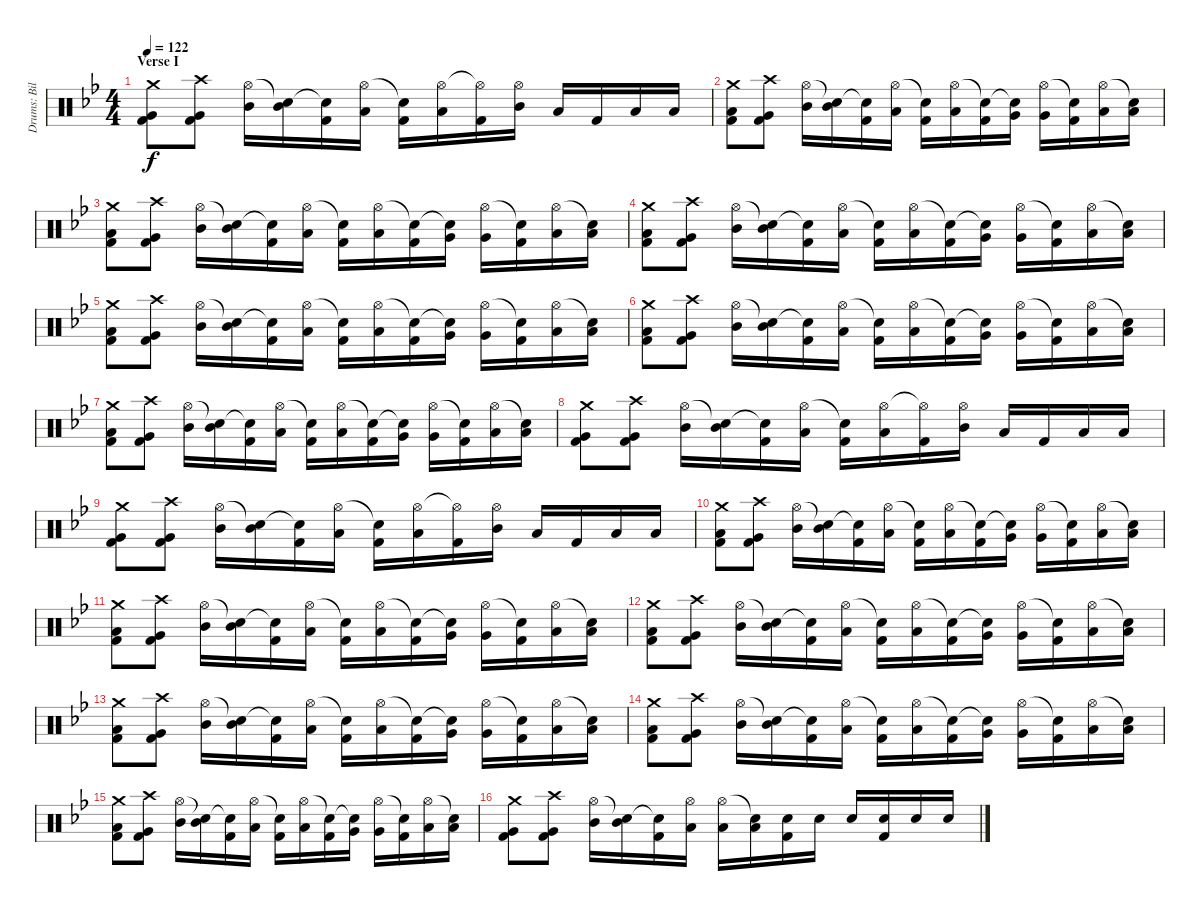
\track ("Drums: Bill" "Drums: Bil") {instrument percussion}
\staff {score}
\articulation defaults
\ts (4 4)
\section ("" "Verse I")
\tempo 122
\clef neutral
\ks bb
("Crash medium (hit)" "Very Low Tom (hit)" "Kick (hit) 2").8{dy f} ("Crash high (hit)" "Very Low Tom (hit)" "Kick (hit) 2").8 ("Hi-Hat (open)" "Mid Tom (hit)").16 ("Snare (hit)"{t} "Mid Tom (hit)").16 ("Snare (hit)"{t} "Kick (hit) 2").16 ("Hi-Hat (open)" "Low Tom (hit)").16 ("Snare (hit)"{t} "Kick (hit) 2").16 ("Hi-Hat (open)" "Low Tom (hit)").16 ("Hi-Hat (open)"{t} "Kick (hit) 2").16 ("Hi-Hat (open)" "Mid Tom (hit)").16 "Low Tom (hit)".16 "Kick (hit) 2".16 "Low Tom (hit)".16 "Low Tom (hit)".16 |
("Crash medium (hit)" "Low Tom (hit)" "Kick (hit) 2").8 ("Crash high (hit)" "Very Low Tom (hit)" "Kick (hit) 2").8 ("Hi-Hat (open)" "Mid Tom (hit)").16 ("Snare (hit)"{t} "Mid Tom (hit)").16 ("Snare (hit)"{t} "Kick (hit) 2").16 ("Hi-Hat (open)" "Low Tom (hit)").16 ("Snare (hit)"{t} "Kick (hit) 2").16 ("Hi-Hat (open)" "Low Tom (hit)").16 ("Snare (hit)"{t} "Kick (hit) 2").16 ("Snare (hit)"{t} "Very Low Tom (hit)").16 ("Hi-Hat (open)" "Very Low Tom (hit)").16 ("Snare (hit)"{t} "Kick (hit) 2").16 ("Hi-Hat (open)" "Low Floor Tom (hit)").16 ("Snare (hit)"{t} "Low Floor Tom (hit)").16 |
("Crash medium (hit)" "Low Tom (hit)" "Kick (hit) 2").8 ("Crash high (hit)" "Very Low Tom (hit)" "Kick (hit) 2").8 ("Hi-Hat (open)" "Mid Tom (hit)").16 ("Snare (hit)"{t} "Mid Tom (hit)").16 ("Snare (hit)"{t} "Kick (hit) 2").16 ("Hi-Hat (open)" "Low Tom (hit)").16 ("Snare (hit)"{t} "Kick (hit) 2").16 ("Hi-Hat (open)" "Low Tom (hit)").16 ("Snare (hit)"{t} "Kick (hit) 2").16 ("Snare (hit)"{t} "Very Low Tom (hit)").16 ("Hi-Hat (open)" "Very Low Tom (hit)").16 ("Snare (hit)"{t} "Kick (hit) 2").16 ("Hi-Hat (open)" "Low Floor Tom (hit)").16 ("Snare (hit)"{t} "Low Floor Tom (hit)").16 |
("Crash medium (hit)" "Low Tom (hit)" "Kick (hit) 2").8 ("Crash high (hit)" "Very Low Tom (hit)" "Kick (hit) 2").8 ("Hi-Hat (open)" "Mid Tom (hit)").16 ("Snare (hit)"{t} "Mid Tom (hit)").16 ("Snare (hit)"{t} "Kick (hit) 2").16 ("Hi-Hat (open)" "Low Tom (hit)").16 ("Snare (hit)"{t} "Kick (hit) 2").16 ("Hi-Hat (open)" "Low Tom (hit)").16 ("Snare (hit)"{t} "Kick (hit) 2").16 ("Snare (hit)"{t} "Very Low Tom (hit)").16 ("Hi-Hat (open)" "Very Low Tom (hit)").16 ("Snare (hit)"{t} "Kick (hit) 2").16 ("Hi-Hat (open)" "Low Floor Tom (hit)").16 ("Snare (hit)"{t} "Low Floor Tom (hit)").16 |
("Crash medium (hit)" "Low Tom (hit)" "Kick (hit) 2").8 ("Crash high (hit)" "Very Low Tom (hit)" "Kick (hit) 2").8 ("Hi-Hat (open)" "Mid Tom (hit)").16 ("Snare (hit)"{t} "Mid Tom (hit)").16 ("Snare (hit)"{t} "Kick (hit) 2").16 ("Hi-Hat (open)" "Low Tom (hit)").16 ("Snare (hit)"{t} "Kick (hit) 2").16 ("Hi-Hat (open)" "Low Tom (hit)").16 ("Snare (hit)"{t} "Kick (hit) 2").16 ("Snare (hit)"{t} "Very Low Tom (hit)").16 ("Hi-Hat (open)" "Very Low Tom (hit)").16 ("Snare (hit)"{t} "Kick (hit) 2").16 ("Hi-Hat (open)" "Low Floor Tom (hit)").16 ("Snare (hit)"{t} "Low Floor Tom (hit)").16 |
("Crash medium (hit)" "Low Tom (hit)" "Kick (hit) 2").8 ("Crash high (hit)" "Very Low Tom (hit)" "Kick (hit) 2").8 ("Hi-Hat (open)" "Mid Tom (hit)").16 ("Snare (hit)"{t} "Mid Tom (hit)").16 ("Snare (hit)"{t} "Kick (hit) 2").16 ("Hi-Hat (open)" "Low Tom (hit)").16 ("Snare (hit)"{t} "Kick (hit) 2").16 ("Hi-Hat (open)" "Low Tom (hit)").16 ("Snare (hit)"{t} "Kick (hit) 2").16 ("Snare (hit)"{t} "Very Low Tom (hit)").16 ("Hi-Hat (open)" "Very Low Tom (hit)").16 ("Snare (hit)"{t} "Kick (hit) 2").16 ("Hi-Hat (open)" "Low Floor Tom (hit)").16 ("Snare (hit)"{t} "Low Floor Tom (hit)").16 |
("Crash medium (hit)" "Low Tom (hit)" "Kick (hit) 2").8 ("Crash high (hit)" "Very Low Tom (hit)" "Kick (hit) 2").8 ("Hi-Hat (open)" "Mid Tom (hit)").16 ("Snare (hit)"{t} "Mid Tom (hit)").16 ("Snare (hit)"{t} "Kick (hit) 2").16 ("Hi-Hat (open)" "Low Tom (hit)").16 ("Snare (hit)"{t} "Kick (hit) 2").16 ("Hi-Hat (open)" "Low Tom (hit)").16 ("Snare (hit)"{t} "Kick (hit) 2").16 ("Snare (hit)"{t} "Very Low Tom (hit)").16 ("Hi-Hat (open)" "Very Low Tom (hit)").16 ("Snare (hit)"{t} "Kick (hit) 2").16 ("Hi-Hat (open)" "Low Floor Tom (hit)").16 ("Snare (hit)"{t} "Low Floor Tom (hit)").16 |
("Crash medium (hit)" "Very Low Tom (hit)" "Kick (hit) 2").8 ("Crash high (hit)" "Very Low Tom (hit)" "Kick (hit) 2").8 ("Hi-Hat (open)" "Mid Tom (hit)").16 ("Snare (hit)"{t} "Mid Tom (hit)").16 ("Snare (hit)"{t} "Kick (hit) 2").16 ("Hi-Hat (open)" "Low Tom (hit)").16 ("Snare (hit)"{t} "Kick (hit) 2").16 ("Hi-Hat (open)" "Low Tom (hit)").16 ("Hi-Hat (open)"{t} "Kick (hit) 2").16 ("Hi-Hat (open)" "Mid Tom (hit)").16 "Low Tom (hit)".16 "Kick (hit) 2".16 "Low Tom (hit)".16 "Low Tom (hit)".16 |
("Crash medium (hit)" "Very Low Tom (hit)" "Kick (hit) 2").8 ("Crash high (hit)" "Very Low Tom (hit)" "Kick (hit) 2").8 ("Hi-Hat (open)" "Mid Tom (hit)").16 ("Snare (hit)"{t} "Mid Tom (hit)").16 ("Snare (hit)"{t} "Kick (hit) 2").16 ("Hi-Hat (open)" "Low Tom (hit)").16 ("Snare (hit)"{t} "Kick (hit) 2").16 ("Hi-Hat (open)" "Low Tom (hit)").16 ("Hi-Hat (open)"{t} "Kick (hit) 2").16 ("Hi-Hat (open)" "Mid Tom (hit)").16 "Low Tom (hit)".16 "Kick (hit) 2".16 "Low Tom (hit)".16 "Low Tom (hit)".16 |
("Crash medium (hit)" "Low Tom (hit)" "Kick (hit) 2").8 ("Crash high (hit)" "Very Low Tom (hit)" "Kick (hit) 2").8 ("Hi-Hat (open)" "Mid Tom (hit)").16 ("Snare (hit)"{t} "Mid Tom (hit)").16 ("Snare (hit)"{t} "Kick (hit) 2").16 ("Hi-Hat (open)" "Low Tom (hit)").16 ("Snare (hit)"{t} "Kick (hit) 2").16 ("Hi-Hat (open)" "Low Tom (hit)").16 ("Snare (hit)"{t} "Kick (hit) 2").16 ("Snare (hit)"{t} "Very Low Tom (hit)").16 ("Hi-Hat (open)" "Very Low Tom (hit)").16 ("Snare (hit)"{t} "Kick (hit) 2").16 ("Hi-Hat (open)" "Low Floor Tom (hit)").16 ("Snare (hit)"{t} "Low Floor Tom (hit)").16 |
("Crash medium (hit)" "Low Tom (hit)" "Kick (hit) 2").8 ("Crash high (hit)" "Very Low Tom (hit)" "Kick (hit) 2").8 ("Hi-Hat (open)" "Mid Tom (hit)").16 ("Snare (hit)"{t} "Mid Tom (hit)").16 ("Snare (hit)"{t} "Kick (hit) 2").16 ("Hi-Hat (open)" "Low Tom (hit)").16 ("Snare (hit)"{t} "Kick (hit) 2").16 ("Hi-Hat (open)" "Low Tom (hit)").16 ("Snare (hit)"{t} "Kick (hit) 2").16 ("Snare (hit)"{t} "Very Low Tom (hit)").16 ("Hi-Hat (open)" "Very Low Tom (hit)").16 ("Snare (hit)"{t} "Kick (hit) 2").16 ("Hi-Hat (open)" "Low Floor Tom (hit)").16 ("Snare (hit)"{t} "Low Floor Tom (hit)").16 |
("Crash medium (hit)" "Low Tom (hit)" "Kick (hit) 2").8 ("Crash high (hit)" "Very Low Tom (hit)" "Kick (hit) 2").8 ("Hi-Hat (open)" "Mid Tom (hit)").16 ("Snare (hit)"{t} "Mid Tom (hit)").16 ("Snare (hit)"{t} "Kick (hit) 2").16 ("Hi-Hat (open)" "Low Tom (hit)").16 ("Snare (hit)"{t} "Kick (hit) 2").16 ("Hi-Hat (open)" "Low Tom (hit)").16 ("Snare (hit)"{t} "Kick (hit) 2").16 ("Snare (hit)"{t} "Very Low Tom (hit)").16 ("Hi-Hat (open)" "Very Low Tom (hit)").16 ("Snare (hit)"{t} "Kick (hit) 2").16 ("Hi-Hat (open)" "Low Floor Tom (hit)").16 ("Snare (hit)"{t} "Low Floor Tom (hit)").16 |
("Crash medium (hit)" "Low Tom (hit)" "Kick (hit) 2").8 ("Crash high (hit)" "Very Low Tom (hit)" "Kick (hit) 2").8 ("Hi-Hat (open)" "Mid Tom (hit)").16 ("Snare (hit)"{t} "Mid Tom (hit)").16 ("Snare (hit)"{t} "Kick (hit) 2").16 ("Hi-Hat (open)" "Low Tom (hit)").16 ("Snare (hit)"{t} "Kick (hit) 2").16 ("Hi-Hat (open)" "Low Tom (hit)").16 ("Snare (hit)"{t} "Kick (hit) 2").16 ("Snare (hit)"{t} "Very Low Tom (hit)").16 ("Hi-Hat (open)" "Very Low Tom (hit)").16 ("Snare (hit)"{t} "Kick (hit) 2").16 ("Hi-Hat (open)" "Low Floor Tom (hit)").16 ("Snare (hit)"{t} "Low Floor Tom (hit)").16 |
("Crash medium (hit)" "Low Tom (hit)" "Kick (hit) 2").8 ("Crash high (hit)" "Very Low Tom (hit)" "Kick (hit) 2").8 ("Hi-Hat (open)" "Mid Tom (hit)").16 ("Snare (hit)"{t} "Mid Tom (hit)").16 ("Snare (hit)"{t} "Kick (hit) 2").16 ("Hi-Hat (open)" "Low Tom (hit)").16 ("Snare (hit)"{t} "Kick (hit) 2").16 ("Hi-Hat (open)" "Low Tom (hit)").16 ("Snare (hit)"{t} "Kick (hit) 2").16 ("Snare (hit)"{t} "Very Low Tom (hit)").16 ("Hi-Hat (open)" "Very Low Tom (hit)").16 ("Snare (hit)"{t} "Kick (hit) 2").16 ("Hi-Hat (open)" "Low Floor Tom (hit)").16 ("Snare (hit)"{t} "Low Floor Tom (hit)").16 |
("Crash medium (hit)" "Low Tom (hit)" "Kick (hit) 2").8 ("Crash high (hit)" "Very Low Tom (hit)" "Kick (hit) 2").8 ("Hi-Hat (open)" "Mid Tom (hit)").16 ("Snare (hit)"{t} "Mid Tom (hit)").16 ("Snare (hit)"{t} "Kick (hit) 2").16 ("Hi-Hat (open)" "Low Tom (hit)").16 ("Snare (hit)"{t} "Kick (hit) 2").16 ("Hi-Hat (open)" "Low Tom (hit)").16 ("Snare (hit)"{t} "Kick (hit) 2").16 ("Snare (hit)"{t} "Very Low Tom (hit)").16 ("Hi-Hat (open)" "Very Low Tom (hit)").16 ("Snare (hit)"{t} "Kick (hit) 2").16 ("Hi-Hat (open)" "Low Floor Tom (hit)").16 ("Snare (hit)"{t} "Low Floor Tom (hit)").16 |
("Crash medium (hit)" "Very Low Tom (hit)" "Kick (hit) 2").8 ("Crash high (hit)" "Very Low Tom (hit)" "Kick (hit) 2").8 ("Hi-Hat (open)" "Mid Tom (hit)").16 ("Snare (hit)"{t} "Mid Tom (hit)").16 ("Snare (hit)"{t} "Kick (hit) 2").16 ("Hi-Hat (open)" "Low Tom (hit)").16 ("Hi-Hat (open)" "Low Tom (hit)").16 ("Snare (hit)"{t} "Low Tom (hit)").16 ("Electric Snare (hit)" "Kick (hit) 2").16 "Electric Snare (hit)".16 "Electric Snare (hit)".16 ("Electric Snare (hit)" "Kick (hit) 2").16 "Electric Snare (hit)".16 "Electric Snare (hit)".16
